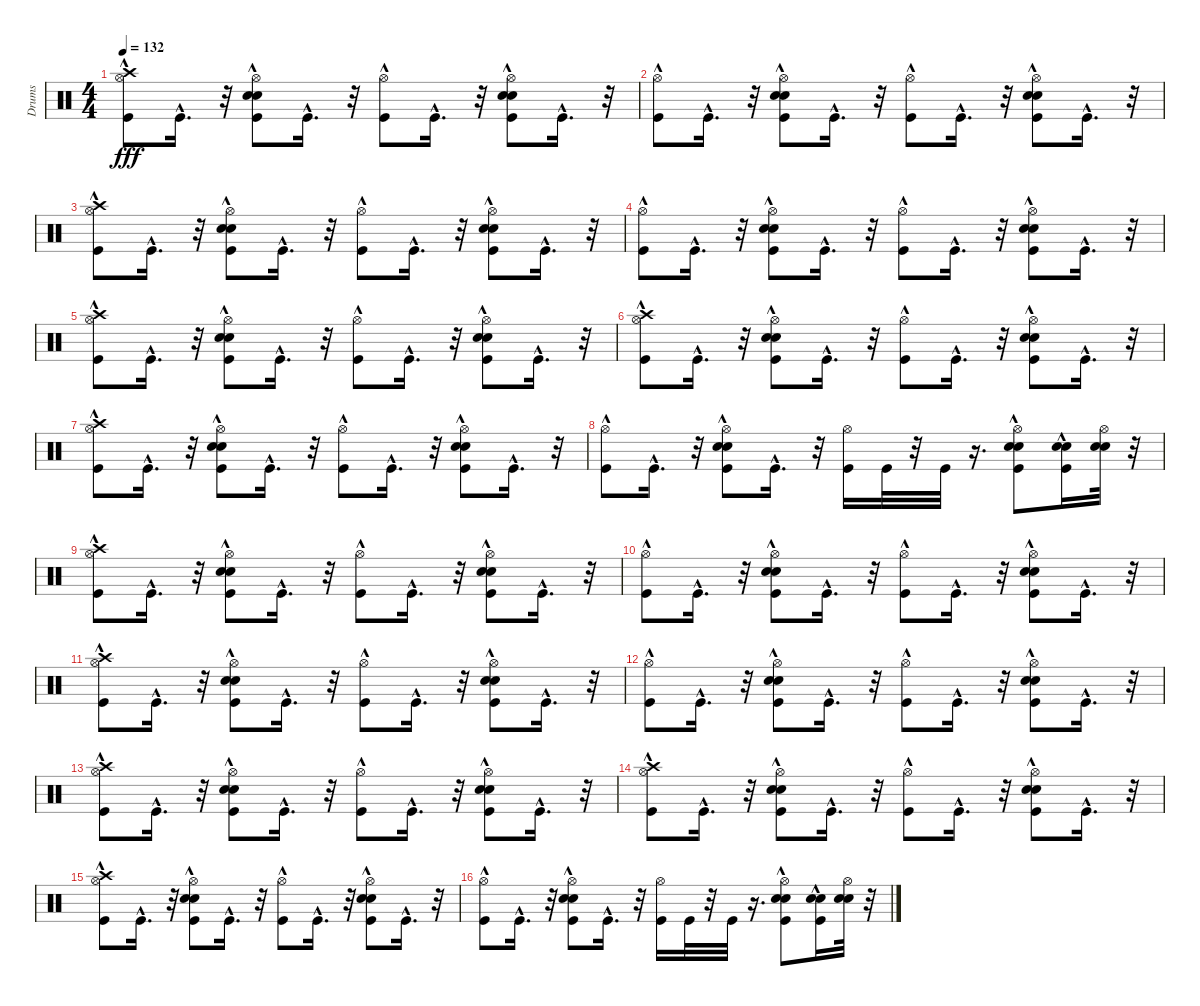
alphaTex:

\track ("Drums" "Drums") {instrument percussion}
\staff {score}
\articulation defaults
\ts (4 4)
\tempo 132
\clef neutral
\ks c
("Hi-Hat (open)" "Kick (hit)"{hac} "Crash high (hit)"{hac}).8{dy fff} "Kick (hit)"{hac}.16{d} r.32 ("Hi-Hat (open)" "Kick (hit)"{hac} "Snare (hit) 2"{hac} "Electric Snare (hit)"{hac}).8 "Kick (hit)"{hac}.16{d} r.32 ("Hi-Hat (open)" "Kick (hit)"{hac}).8 "Kick (hit)"{hac}.16{d} r.32 ("Hi-Hat (open)" "Kick (hit)"{hac} "Snare (hit) 2"{hac} "Electric Snare (hit)"{hac}).8 "Kick (hit)"{hac}.16{d} r.32 |
("Hi-Hat (open)" "Kick (hit)"{hac}).8 "Kick (hit)"{hac}.16{d} r.32 ("Hi-Hat (open)" "Kick (hit)"{hac} "Snare (hit) 2"{hac} "Electric Snare (hit)"{hac}).8 "Kick (hit)"{hac}.16{d} r.32 ("Hi-Hat (open)" "Kick (hit)"{hac}).8 "Kick (hit)"{hac}.16{d} r.32 ("Hi-Hat (open)" "Kick (hit)"{hac} "Snare (hit) 2"{hac} "Electric Snare (hit)"{hac}).8 "Kick (hit)"{hac}.16{d} r.32 |
("Hi-Hat (open)" "Kick (hit)"{hac} "Crash high (hit)"{hac}).8 "Kick (hit)"{hac}.16{d} r.32 ("Hi-Hat (open)" "Kick (hit)"{hac} "Snare (hit) 2"{hac} "Electric Snare (hit)"{hac}).8 "Kick (hit)"{hac}.16{d} r.32 ("Hi-Hat (open)" "Kick (hit)"{hac}).8 "Kick (hit)"{hac}.16{d} r.32 ("Hi-Hat (open)" "Kick (hit)"{hac} "Snare (hit) 2"{hac} "Electric Snare (hit)"{hac}).8 "Kick (hit)"{hac}.16{d} r.32 |
("Hi-Hat (open)" "Kick (hit)"{hac}).8 "Kick (hit)"{hac}.16{d} r.32 ("Hi-Hat (open)" "Kick (hit)"{hac} "Snare (hit) 2"{hac} "Electric Snare (hit)"{hac}).8 "Kick (hit)"{hac}.16{d} r.32 ("Hi-Hat (open)" "Kick (hit)"{hac}).8 "Kick (hit)"{hac}.16{d} r.32 ("Hi-Hat (open)" "Kick (hit)"{hac} "Snare (hit) 2"{hac} "Electric Snare (hit)"{hac}).8 "Kick (hit)"{hac}.16{d} r.32 |
("Hi-Hat (open)" "Kick (hit)"{hac} "Crash high (hit)").8 "Kick (hit)"{hac}.16{d} r.32 ("Hi-Hat (open)" "Kick (hit)"{hac} "Snare (hit) 2"{hac} "Electric Snare (hit)"{hac}).8 "Kick (hit)"{hac}.16{d} r.32 ("Hi-Hat (open)" "Kick (hit)"{hac}).8 "Kick (hit)"{hac}.16{d} r.32 ("Hi-Hat (open)" "Kick (hit)"{hac} "Snare (hit) 2"{hac} "Electric Snare (hit)"{hac}).8 "Kick (hit)"{hac}.16{d} r.32 |
("Hi-Hat (open)" "Kick (hit)"{hac} "Crash high (hit)"{hac}).8 "Kick (hit)"{hac}.16{d} r.32 ("Hi-Hat (open)" "Kick (hit)"{hac} "Snare (hit) 2"{hac} "Electric Snare (hit)"{hac}).8 "Kick (hit)"{hac}.16{d} r.32 ("Hi-Hat (open)" "Kick (hit)"{hac}).8 "Kick (hit)"{hac}.16{d} r.32 ("Hi-Hat (open)" "Kick (hit)"{hac} "Snare (hit) 2"{hac} "Electric Snare (hit)"{hac}).8 "Kick (hit)"{hac}.16{d} r.32 |
("Hi-Hat (open)" "Kick (hit)"{hac} "Crash high (hit)"{hac}).8 "Kick (hit)"{hac}.16{d} r.32 ("Hi-Hat (open)" "Kick (hit)"{hac} "Snare (hit) 2"{hac} "Electric Snare (hit)"{hac}).8 "Kick (hit)"{hac}.16{d} r.32 ("Hi-Hat (open)" "Kick (hit)"{hac}).8 "Kick (hit)"{hac}.16{d} r.32 ("Hi-Hat (open)" "Kick (hit)"{hac} "Snare (hit) 2"{hac} "Electric Snare (hit)"{hac}).8 "Kick (hit)"{hac}.16{d} r.32 |
("Hi-Hat (open)" "Kick (hit)"{hac}).8 "Kick (hit)"{hac}.16{d} r.32 ("Hi-Hat (open)" "Kick (hit)"{hac} "Snare (hit) 2"{hac} "Electric Snare (hit)"{hac}).8 "Kick (hit)"{hac}.16{d} r.32 ("Hi-Hat (open)" "Kick (hit)").16 "Kick (hit)".32 r.32 "Kick (hit)".32 r.16{d} ("Hi-Hat (open)" "Kick (hit)"{hac} "Snare (hit) 2"{hac} "Electric Snare (hit)"{hac}).8 ("Kick (hit)"{hac} "Snare (hit) 2" "Electric Snare (hit)").16 ("Snare (hit) 2" "Electric Snare (hit)" "Hi-Hat (open)").32 r.32 |
("Hi-Hat (open)" "Kick (hit)"{hac} "Crash high (hit)"{hac}).8 "Kick (hit)"{hac}.16{d} r.32 ("Hi-Hat (open)" "Kick (hit)"{hac} "Snare (hit) 2"{hac} "Electric Snare (hit)"{hac}).8 "Kick (hit)"{hac}.16{d} r.32 ("Hi-Hat (open)" "Kick (hit)"{hac}).8 "Kick (hit)"{hac}.16{d} r.32 ("Hi-Hat (open)" "Kick (hit)"{hac} "Snare (hit) 2"{hac} "Electric Snare (hit)"{hac}).8 "Kick (hit)"{hac}.16{d} r.32 |
("Hi-Hat (open)" "Kick (hit)"{hac}).8 "Kick (hit)"{hac}.16{d} r.32 ("Hi-Hat (open)" "Kick (hit)"{hac} "Snare (hit) 2"{hac} "Electric Snare (hit)"{hac}).8 "Kick (hit)"{hac}.16{d} r.32 ("Hi-Hat (open)" "Kick (hit)"{hac}).8 "Kick (hit)"{hac}.16{d} r.32 ("Hi-Hat (open)" "Kick (hit)"{hac} "Snare (hit) 2"{hac} "Electric Snare (hit)"{hac}).8 "Kick (hit)"{hac}.16{d} r.32 |
("Hi-Hat (open)" "Kick (hit)"{hac} "Crash high (hit)"{hac}).8 "Kick (hit)"{hac}.16{d} r.32 ("Hi-Hat (open)" "Kick (hit)"{hac} "Snare (hit) 2"{hac} "Electric Snare (hit)"{hac}).8 "Kick (hit)"{hac}.16{d} r.32 ("Hi-Hat (open)" "Kick (hit)"{hac}).8 "Kick (hit)"{hac}.16{d} r.32 ("Hi-Hat (open)" "Kick (hit)"{hac} "Snare (hit) 2"{hac} "Electric Snare (hit)"{hac}).8 "Kick (hit)"{hac}.16{d} r.32 |
("Hi-Hat (open)" "Kick (hit)"{hac}).8 "Kick (hit)"{hac}.16{d} r.32 ("Hi-Hat (open)" "Kick (hit)"{hac} "Snare (hit) 2"{hac} "Electric Snare (hit)"{hac}).8 "Kick (hit)"{hac}.16{d} r.32 ("Hi-Hat (open)" "Kick (hit)"{hac}).8 "Kick (hit)"{hac}.16{d} r.32 ("Hi-Hat (open)" "Kick (hit)"{hac} "Snare (hit) 2"{hac} "Electric Snare (hit)"{hac}).8 "Kick (hit)"{hac}.16{d} r.32 |
("Hi-Hat (open)" "Kick (hit)"{hac} "Crash high (hit)").8 "Kick (hit)"{hac}.16{d} r.32 ("Hi-Hat (open)" "Kick (hit)"{hac} "Snare (hit) 2"{hac} "Electric Snare (hit)"{hac}).8 "Kick (hit)"{hac}.16{d} r.32 ("Hi-Hat (open)" "Kick (hit)"{hac}).8 "Kick (hit)"{hac}.16{d} r.32 ("Hi-Hat (open)" "Kick (hit)"{hac} "Snare (hit) 2"{hac} "Electric Snare (hit)"{hac}).8 "Kick (hit)"{hac}.16{d} r.32 |
("Hi-Hat (open)" "Kick (hit)"{hac} "Crash high (hit)"{hac}).8 "Kick (hit)"{hac}.16{d} r.32 ("Hi-Hat (open)" "Kick (hit)"{hac} "Snare (hit) 2"{hac} "Electric Snare (hit)"{hac}).8 "Kick (hit)"{hac}.16{d} r.32 ("Hi-Hat (open)" "Kick (hit)"{hac}).8 "Kick (hit)"{hac}.16{d} r.32 ("Hi-Hat (open)" "Kick (hit)"{hac} "Snare (hit) 2"{hac} "Electric Snare (hit)"{hac}).8 "Kick (hit)"{hac}.16{d} r.32 |
("Hi-Hat (open)" "Kick (hit)"{hac} "Crash high (hit)"{hac}).8 "Kick (hit)"{hac}.16{d} r.32 ("Hi-Hat (open)" "Kick (hit)"{hac} "Snare (hit) 2"{hac} "Electric Snare (hit)"{hac}).8 "Kick (hit)"{hac}.16{d} r.32 ("Hi-Hat (open)" "Kick (hit)"{hac}).8 "Kick (hit)"{hac}.16{d} r.32 ("Hi-Hat (open)" "Kick (hit)"{hac} "Snare (hit) 2"{hac} "Electric Snare (hit)"{hac}).8 "Kick (hit)"{hac}.16{d} r.32 |
("Hi-Hat (open)" "Kick (hit)"{hac}).8 "Kick (hit)"{hac}.16{d} r.32 ("Hi-Hat (open)" "Kick (hit)"{hac} "Snare (hit) 2"{hac} "Electric Snare (hit)"{hac}).8 "Kick (hit)"{hac}.16{d} r.32 ("Hi-Hat (open)" "Kick (hit)").16 "Kick (hit)".32 r.32 "Kick (hit)".32 r.16{d} ("Hi-Hat (open)" "Kick (hit)"{hac} "Snare (hit) 2"{hac} "Electric Snare (hit)"{hac}).8 ("Kick (hit)"{hac} "Snare (hit) 2" "Electric Snare (hit)").16 ("Snare (hit) 2" "Electric Snare (hit)" "Hi-Hat (open)").32 r.32
